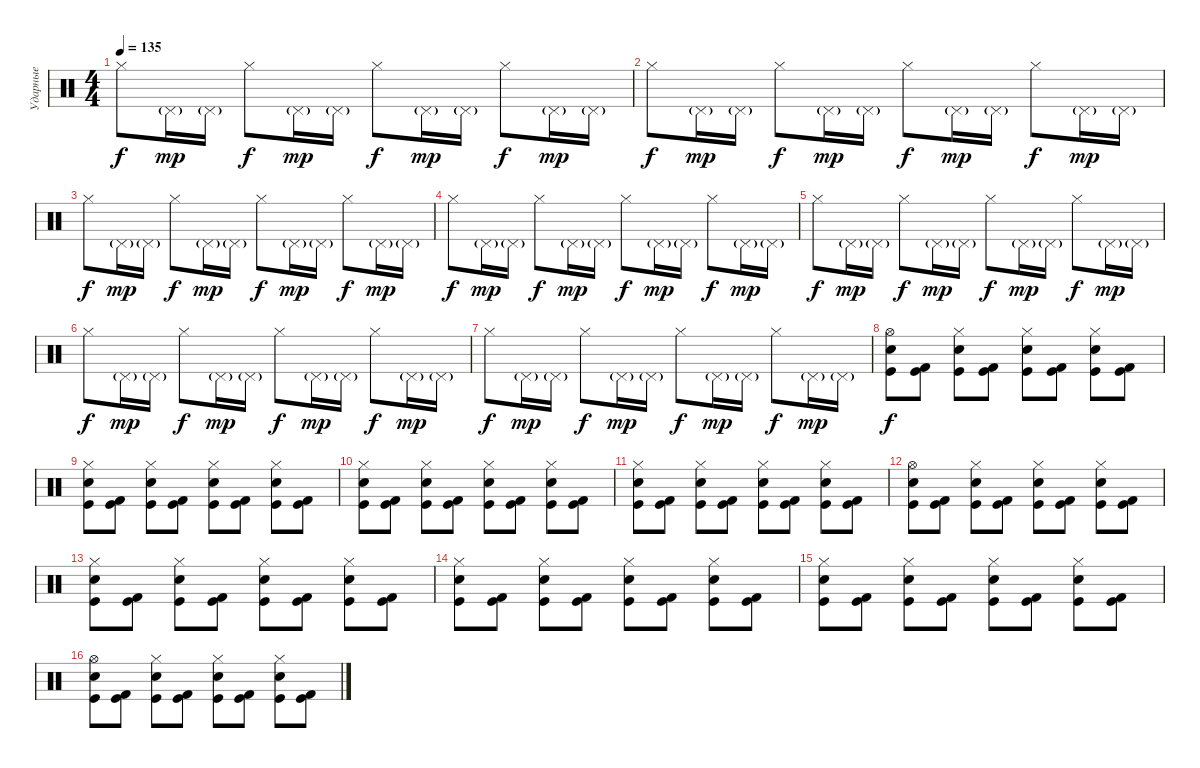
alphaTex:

\track ("Ударные" "Ударные") {instrument percussion}
\staff {score}
\articulation defaults
\ts (4 4)
\tempo 135
\clef neutral
\ks c "Hi-Hat (closed)".8{dy f} "Pedal Hi-Hat (hit)"{g}.16{dy mp} "Pedal Hi-Hat (hit)"{g}.16 "Hi-Hat (closed)".8{dy f} "Pedal Hi-Hat (hit)"{g}.16{dy mp} "Pedal Hi-Hat (hit)"{g}.16 "Hi-Hat (closed)".8{dy f} "Pedal Hi-Hat (hit)"{g}.16{dy mp} "Pedal Hi-Hat (hit)"{g}.16 "Hi-Hat (closed)".8{dy f} "Pedal Hi-Hat (hit)"{g}.16{dy mp} "Pedal Hi-Hat (hit)"{g}.16
|
"Hi-Hat (closed)".8{dy f} "Pedal Hi-Hat (hit)"{g}.16{dy mp} "Pedal Hi-Hat (hit)"{g}.16 "Hi-Hat (closed)".8{dy f} "Pedal Hi-Hat (hit)"{g}.16{dy mp} "Pedal Hi-Hat (hit)"{g}.16 "Hi-Hat (closed)".8{dy f} "Pedal Hi-Hat (hit)"{g}.16{dy mp} "Pedal Hi-Hat (hit)"{g}.16 "Hi-Hat (closed)".8{dy f} "Pedal Hi-Hat (hit)"{g}.16{dy mp} "Pedal Hi-Hat (hit)"{g}.16 |
"Hi-Hat (closed)".8{dy f} "Pedal Hi-Hat (hit)"{g}.16{dy mp} "Pedal Hi-Hat (hit)"{g}.16 "Hi-Hat (closed)".8{dy f} "Pedal Hi-Hat (hit)"{g}.16{dy mp} "Pedal Hi-Hat (hit)"{g}.16 "Hi-Hat (closed)".8{dy f} "Pedal Hi-Hat (hit)"{g}.16{dy mp} "Pedal Hi-Hat (hit)"{g}.16 "Hi-Hat (closed)".8{dy f} "Pedal Hi-Hat (hit)"{g}.16{dy mp} "Pedal Hi-Hat (hit)"{g}.16 |
"Hi-Hat (closed)".8{dy f} "Pedal Hi-Hat (hit)"{g}.16{dy mp} "Pedal Hi-Hat (hit)"{g}.16 "Hi-Hat (closed)".8{dy f} "Pedal Hi-Hat (hit)"{g}.16{dy mp} "Pedal Hi-Hat (hit)"{g}.16 "Hi-Hat (closed)".8{dy f} "Pedal Hi-Hat (hit)"{g}.16{dy mp} "Pedal Hi-Hat (hit)"{g}.16 "Hi-Hat (closed)".8{dy f} "Pedal Hi-Hat (hit)"{g}.16{dy mp} "Pedal Hi-Hat (hit)"{g}.16 |
"Hi-Hat (closed)".8{dy f} "Pedal Hi-Hat (hit)"{g}.16{dy mp} "Pedal Hi-Hat (hit)"{g}.16 "Hi-Hat (closed)".8{dy f} "Pedal Hi-Hat (hit)"{g}.16{dy mp} "Pedal Hi-Hat (hit)"{g}.16 "Hi-Hat (closed)".8{dy f} "Pedal Hi-Hat (hit)"{g}.16{dy mp} "Pedal Hi-Hat (hit)"{g}.16 "Hi-Hat (closed)".8{dy f} "Pedal Hi-Hat (hit)"{g}.16{dy mp} "Pedal Hi-Hat (hit)"{g}.16 |
"Hi-Hat (closed)".8{dy f} "Pedal Hi-Hat (hit)"{g}.16{dy mp} "Pedal Hi-Hat (hit)"{g}.16 "Hi-Hat (closed)".8{dy f} "Pedal Hi-Hat (hit)"{g}.16{dy mp} "Pedal Hi-Hat (hit)"{g}.16 "Hi-Hat (closed)".8{dy f} "Pedal Hi-Hat (hit)"{g}.16{dy mp} "Pedal Hi-Hat (hit)"{g}.16 "Hi-Hat (closed)".8{dy f} "Pedal Hi-Hat (hit)"{g}.16{dy mp} "Pedal Hi-Hat (hit)"{g}.16 |
"Hi-Hat (closed)".8{dy f} "Pedal Hi-Hat (hit)"{g}.16{dy mp} "Pedal Hi-Hat (hit)"{g}.16 "Hi-Hat (closed)".8{dy f} "Pedal Hi-Hat (hit)"{g}.16{dy mp} "Pedal Hi-Hat (hit)"{g}.16 "Hi-Hat (closed)".8{dy f} "Pedal Hi-Hat (hit)"{g}.16{dy mp} "Pedal Hi-Hat (hit)"{g}.16 "Hi-Hat (closed)".8{dy f} "Pedal Hi-Hat (hit)"{g}.16{dy mp} "Pedal Hi-Hat (hit)"{g}.16 |
("Hi-Hat (open)" "Electric Snare (hit)" "Kick (hit)").8{dy f} ("Kick (hit)" "Kick (hit) 2").8 ("Hi-Hat (closed)" "Electric Snare (hit)" "Kick (hit)").8 ("Kick (hit)" "Kick (hit) 2").8 ("Hi-Hat (closed)" "Electric Snare (hit)" "Kick (hit)").8 ("Kick (hit)" "Kick (hit) 2").8 ("Hi-Hat (closed)" "Electric Snare (hit)" "Kick (hit)").8 ("Kick (hit)" "Kick (hit) 2").8 |
("Hi-Hat (closed)" "Electric Snare (hit)" "Kick (hit)").8 ("Kick (hit)" "Kick (hit) 2").8 ("Hi-Hat (closed)" "Electric Snare (hit)" "Kick (hit)").8 ("Kick (hit)" "Kick (hit) 2").8 ("Hi-Hat (closed)" "Electric Snare (hit)" "Kick (hit)").8 ("Kick (hit)" "Kick (hit) 2").8 ("Hi-Hat (closed)" "Electric Snare (hit)" "Kick (hit)").8 ("Kick (hit)" "Kick (hit) 2").8 |
("Hi-Hat (closed)" "Electric Snare (hit)" "Kick (hit)").8 ("Kick (hit)" "Kick (hit) 2").8 ("Hi-Hat (closed)" "Electric Snare (hit)" "Kick (hit)").8 ("Kick (hit)" "Kick (hit) 2").8 ("Hi-Hat (closed)" "Electric Snare (hit)" "Kick (hit)").8 ("Kick (hit)" "Kick (hit) 2").8 ("Hi-Hat (closed)" "Electric Snare (hit)" "Kick (hit)").8 ("Kick (hit)" "Kick (hit) 2").8 |
("Hi-Hat (closed)" "Electric Snare (hit)" "Kick (hit)").8 ("Kick (hit)" "Kick (hit) 2").8 ("Hi-Hat (closed)" "Electric Snare (hit)" "Kick (hit)").8 ("Kick (hit)" "Kick (hit) 2").8 ("Hi-Hat (closed)" "Electric Snare (hit)" "Kick (hit)").8 ("Kick (hit)" "Kick (hit) 2").8 ("Hi-Hat (closed)" "Electric Snare (hit)" "Kick (hit)").8 ("Kick (hit)" "Kick (hit) 2").8 |
("Hi-Hat (open)" "Electric Snare (hit)" "Kick (hit)").8 ("Kick (hit)" "Kick (hit) 2").8 ("Hi-Hat (closed)" "Electric Snare (hit)" "Kick (hit)").8 ("Kick (hit)" "Kick (hit) 2").8 ("Hi-Hat (closed)" "Electric Snare (hit)" "Kick (hit)").8 ("Kick (hit)" "Kick (hit) 2").8 ("Hi-Hat (closed)" "Electric Snare (hit)" "Kick (hit)").8 ("Kick (hit)" "Kick (hit) 2").8 |
("Hi-Hat (closed)" "Electric Snare (hit)" "Kick (hit)").8 ("Kick (hit)" "Kick (hit) 2").8 ("Hi-Hat (closed)" "Electric Snare (hit)" "Kick (hit)").8 ("Kick (hit)" "Kick (hit) 2").8 ("Hi-Hat (closed)" "Electric Snare (hit)" "Kick (hit)").8 ("Kick (hit)" "Kick (hit) 2").8 ("Hi-Hat (closed)" "Electric Snare (hit)" "Kick (hit)").8 ("Kick (hit)" "Kick (hit) 2").8 |
("Hi-Hat (closed)" "Electric Snare (hit)" "Kick (hit)").8 ("Kick (hit)" "Kick (hit) 2").8 ("Hi-Hat (closed)" "Electric Snare (hit)" "Kick (hit)").8 ("Kick (hit)" "Kick (hit) 2").8 ("Hi-Hat (closed)" "Electric Snare (hit)" "Kick (hit)").8 ("Kick (hit)" "Kick (hit) 2").8 ("Hi-Hat (closed)" "Electric Snare (hit)" "Kick (hit)").8 ("Kick (hit)" "Kick (hit) 2").8 |
("Hi-Hat (closed)" "Electric Snare (hit)" "Kick (hit)").8 ("Kick (hit)" "Kick (hit) 2").8 ("Hi-Hat (closed)" "Electric Snare (hit)" "Kick (hit)").8 ("Kick (hit)" "Kick (hit) 2").8 ("Hi-Hat (closed)" "Electric Snare (hit)" "Kick (hit)").8 ("Kick (hit)" "Kick (hit) 2").8 ("Hi-Hat (closed)" "Electric Snare (hit)" "Kick (hit)").8 ("Kick (hit)" "Kick (hit) 2").8 |
("Hi-Hat (open)" "Electric Snare (hit)" "Kick (hit)").8 ("Kick (hit)" "Kick (hit) 2").8 ("Hi-Hat (closed)" "Electric Snare (hit)" "Kick (hit)").8 ("Kick (hit)" "Kick (hit) 2").8 ("Hi-Hat (closed)" "Electric Snare (hit)" "Kick (hit)").8 ("Kick (hit)" "Kick (hit) 2").8 ("Hi-Hat (closed)" "Electric Snare (hit)" "Kick (hit)").8 ("Kick (hit)" "Kick (hit) 2").8
